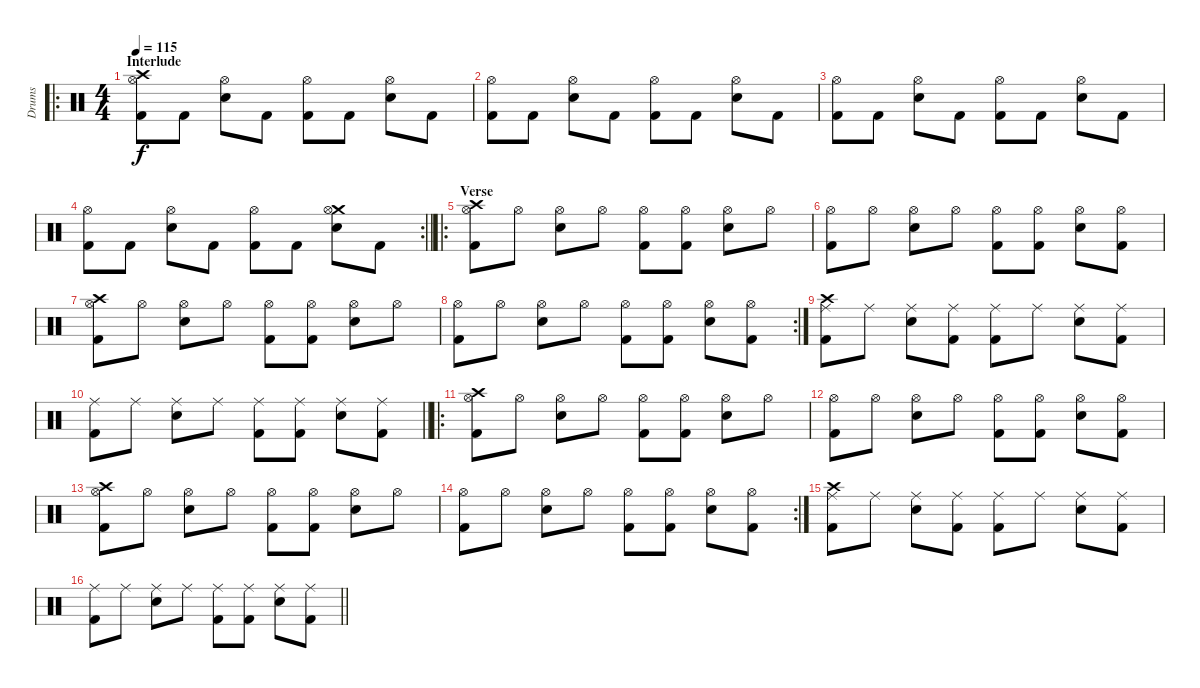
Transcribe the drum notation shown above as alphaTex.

\track ("Drums" "Drums") {instrument percussion}
\staff {score}
\articulation defaults
\ro
\ts (4 4)
\section ("" "Interlude")
\tempo 115
\clef neutral
\ks c
("Crash high (hit)" "Hi-Hat (open)" "Kick (hit) 2").8{dy f} "Kick (hit) 2".8 ("Hi-Hat (open)" "Snare (hit) 2").8 "Kick (hit) 2".8 ("Hi-Hat (open)" "Kick (hit) 2").8 "Kick (hit) 2".8 ("Hi-Hat (open)" "Snare (hit) 2").8 "Kick (hit) 2".8 |
("Hi-Hat (open)" "Kick (hit) 2").8 "Kick (hit) 2".8 ("Hi-Hat (open)" "Snare (hit) 2").8 "Kick (hit) 2".8 ("Hi-Hat (open)" "Kick (hit) 2").8 "Kick (hit) 2".8 ("Hi-Hat (open)" "Snare (hit) 2").8 "Kick (hit) 2".8 |
("Hi-Hat (open)" "Kick (hit) 2").8 "Kick (hit) 2".8 ("Hi-Hat (open)" "Snare (hit) 2").8 "Kick (hit) 2".8 ("Hi-Hat (open)" "Kick (hit) 2").8 "Kick (hit) 2".8 ("Hi-Hat (open)" "Snare (hit) 2").8 "Kick (hit) 2".8 |
\rc 2
\barLineRight lightlight
("Hi-Hat (open)" "Kick (hit) 2").8 "Kick (hit) 2".8 ("Hi-Hat (open)" "Snare (hit) 2").8 "Kick (hit) 2".8 ("Hi-Hat (open)" "Kick (hit) 2").8 "Kick (hit) 2".8 ("Crash medium (hit)" "Hi-Hat (open)" "Snare (hit) 2").8 "Kick (hit) 2".8 |
\ro
\section ("" "Verse")
("Crash high (hit)" "Hi-Hat (open)" "Kick (hit) 2").8 "Hi-Hat (open)".8 ("Hi-Hat (open)" "Snare (hit) 2").8 "Hi-Hat (open)".8 ("Hi-Hat (open)" "Kick (hit) 2").8 ("Hi-Hat (open)" "Kick (hit) 2").8 ("Hi-Hat (open)" "Snare (hit) 2").8 "Hi-Hat (open)".8 |
("Hi-Hat (open)" "Kick (hit) 2").8 "Hi-Hat (open)".8 ("Hi-Hat (open)" "Snare (hit) 2").8 "Hi-Hat (open)".8 ("Hi-Hat (open)" "Kick (hit) 2").8 ("Hi-Hat (open)" "Kick (hit) 2").8 ("Hi-Hat (open)" "Snare (hit) 2").8 ("Hi-Hat (open)" "Kick (hit) 2").8 |
("Crash high (hit)" "Hi-Hat (open)" "Kick (hit) 2").8 "Hi-Hat (open)".8 ("Hi-Hat (open)" "Snare (hit) 2").8 "Hi-Hat (open)".8 ("Hi-Hat (open)" "Kick (hit) 2").8 ("Hi-Hat (open)" "Kick (hit) 2").8 ("Hi-Hat (open)" "Snare (hit) 2").8 "Hi-Hat (open)".8 |
\rc 2
("Hi-Hat (open)" "Kick (hit) 2").8 "Hi-Hat (open)".8 ("Hi-Hat (open)" "Snare (hit) 2").8 "Hi-Hat (open)".8 ("Hi-Hat (open)" "Kick (hit) 2").8 ("Hi-Hat (open)" "Kick (hit) 2").8 ("Hi-Hat (open)" "Snare (hit) 2").8 ("Hi-Hat (open)" "Kick (hit) 2").8 |
("Crash high (hit)" "Ride (middle)" "Kick (hit) 2").8 "Ride (middle)".8 ("Ride (middle)" "Snare (hit) 2").8 ("Ride (middle)" "Kick (hit) 2").8 ("Ride (middle)" "Kick (hit) 2").8 "Ride (middle)".8 ("Ride (middle)" "Snare (hit) 2").8 ("Ride (middle)" "Kick (hit) 2").8 |
\barLineRight lightlight
("Ride (middle)" "Kick (hit) 2").8 "Ride (middle)".8 ("Ride (middle)" "Snare (hit) 2").8 "Ride (middle)".8 ("Ride (middle)" "Kick (hit) 2").8 ("Ride (middle)" "Kick (hit) 2").8 ("Ride (middle)" "Snare (hit) 2").8 ("Ride (middle)" "Kick (hit) 2").8 |
\ro
("Crash high (hit)" "Hi-Hat (open)" "Kick (hit) 2").8 "Hi-Hat (open)".8 ("Hi-Hat (open)" "Snare (hit) 2").8 "Hi-Hat (open)".8 ("Hi-Hat (open)" "Kick (hit) 2").8 ("Hi-Hat (open)" "Kick (hit) 2").8 ("Hi-Hat (open)" "Snare (hit) 2").8 "Hi-Hat (open)".8 |
("Hi-Hat (open)" "Kick (hit) 2").8 "Hi-Hat (open)".8 ("Hi-Hat (open)" "Snare (hit) 2").8 "Hi-Hat (open)".8 ("Hi-Hat (open)" "Kick (hit) 2").8 ("Hi-Hat (open)" "Kick (hit) 2").8 ("Hi-Hat (open)" "Snare (hit) 2").8 ("Hi-Hat (open)" "Kick (hit) 2").8 |
("Crash high (hit)" "Hi-Hat (open)" "Kick (hit) 2").8 "Hi-Hat (open)".8 ("Hi-Hat (open)" "Snare (hit) 2").8 "Hi-Hat (open)".8 ("Hi-Hat (open)" "Kick (hit) 2").8 ("Hi-Hat (open)" "Kick (hit) 2").8 ("Hi-Hat (open)" "Snare (hit) 2").8 "Hi-Hat (open)".8 |
\rc 2
("Hi-Hat (open)" "Kick (hit) 2").8 "Hi-Hat (open)".8 ("Hi-Hat (open)" "Snare (hit) 2").8 "Hi-Hat (open)".8 ("Hi-Hat (open)" "Kick (hit) 2").8 ("Hi-Hat (open)" "Kick (hit) 2").8 ("Hi-Hat (open)" "Snare (hit) 2").8 ("Hi-Hat (open)" "Kick (hit) 2").8 |
("Crash high (hit)" "Ride (middle)" "Kick (hit) 2").8 "Ride (middle)".8 ("Ride (middle)" "Snare (hit) 2").8 ("Ride (middle)" "Kick (hit) 2").8 ("Ride (middle)" "Kick (hit) 2").8 "Ride (middle)".8 ("Ride (middle)" "Snare (hit) 2").8 ("Ride (middle)" "Kick (hit) 2").8 |
\barLineRight lightlight
("Ride (middle)" "Kick (hit) 2").8 "Ride (middle)".8 ("Ride (middle)" "Snare (hit) 2").8 "Ride (middle)".8 ("Ride (middle)" "Kick (hit) 2").8 ("Ride (middle)" "Kick (hit) 2").8 ("Ride (middle)" "Snare (hit) 2").8 ("Ride (middle)" "Kick (hit) 2").8
